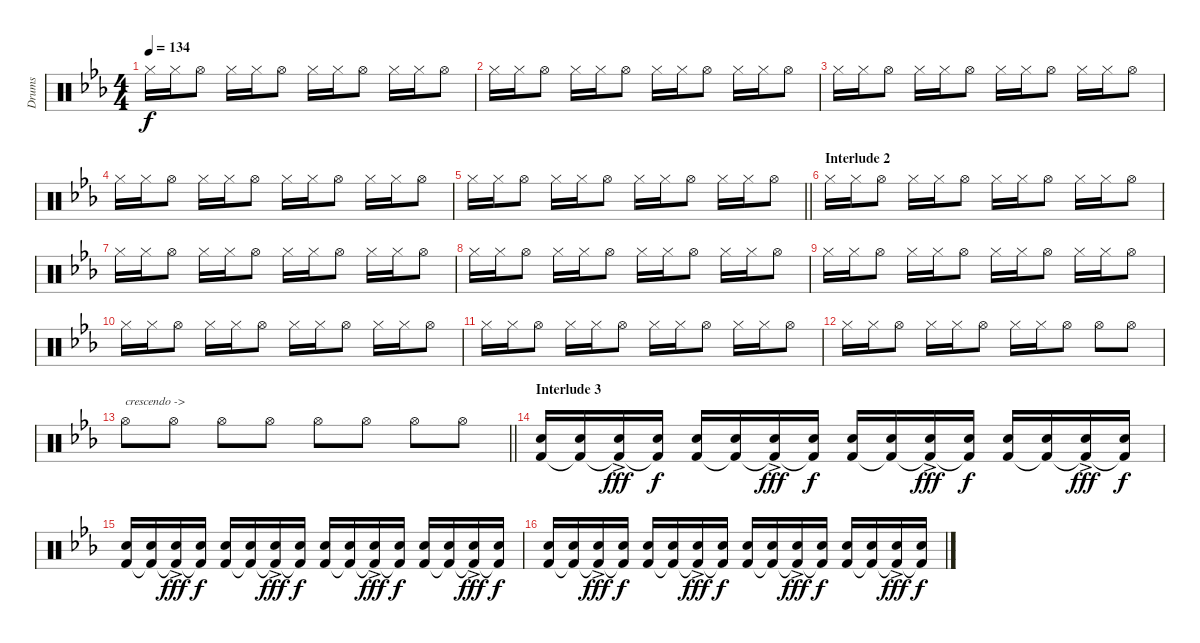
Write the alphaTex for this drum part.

\track ("Drums" "Drums") {instrument percussion}
\staff {score}
\articulation defaults
\ts (4 4)
\tempo 134
\clef neutral
\ks eb "Hi-Hat (closed)".16{dy f} "Hi-Hat (closed)".16 "Hi-Hat (open)".8 "Hi-Hat (closed)".16 "Hi-Hat (closed)".16 "Hi-Hat (open)".8 "Hi-Hat (closed)".16 "Hi-Hat (closed)".16 "Hi-Hat (open)".8 "Hi-Hat (closed)".16 "Hi-Hat (closed)".16 "Hi-Hat (open)".8
|
"Hi-Hat (closed)".16 "Hi-Hat (closed)".16 "Hi-Hat (open)".8 "Hi-Hat (closed)".16 "Hi-Hat (closed)".16 "Hi-Hat (open)".8 "Hi-Hat (closed)".16 "Hi-Hat (closed)".16 "Hi-Hat (open)".8 "Hi-Hat (closed)".16 "Hi-Hat (closed)".16 "Hi-Hat (open)".8 |
"Hi-Hat (closed)".16 "Hi-Hat (closed)".16 "Hi-Hat (open)".8 "Hi-Hat (closed)".16 "Hi-Hat (closed)".16 "Hi-Hat (open)".8 "Hi-Hat (closed)".16 "Hi-Hat (closed)".16 "Hi-Hat (open)".8 "Hi-Hat (closed)".16 "Hi-Hat (closed)".16 "Hi-Hat (open)".8 |
"Hi-Hat (closed)".16 "Hi-Hat (closed)".16 "Hi-Hat (open)".8 "Hi-Hat (closed)".16 "Hi-Hat (closed)".16 "Hi-Hat (open)".8 "Hi-Hat (closed)".16 "Hi-Hat (closed)".16 "Hi-Hat (open)".8 "Hi-Hat (closed)".16 "Hi-Hat (closed)".16 "Hi-Hat (open)".8 |
\barLineRight lightlight "Hi-Hat (closed)".16 "Hi-Hat (closed)".16 "Hi-Hat (open)".8 "Hi-Hat (closed)".16 "Hi-Hat (closed)".16 "Hi-Hat (open)".8 "Hi-Hat (closed)".16 "Hi-Hat (closed)".16 "Hi-Hat (open)".8 "Hi-Hat (closed)".16 "Hi-Hat (closed)".16 "Hi-Hat (open)".8
|
\section ("" "Interlude 2")
"Hi-Hat (closed)".16 "Hi-Hat (closed)".16 "Hi-Hat (open)".8 "Hi-Hat (closed)".16 "Hi-Hat (closed)".16 "Hi-Hat (open)".8 "Hi-Hat (closed)".16 "Hi-Hat (closed)".16 "Hi-Hat (open)".8 "Hi-Hat (closed)".16 "Hi-Hat (closed)".16 "Hi-Hat (open)".8 |
"Hi-Hat (closed)".16 "Hi-Hat (closed)".16 "Hi-Hat (open)".8 "Hi-Hat (closed)".16 "Hi-Hat (closed)".16 "Hi-Hat (open)".8 "Hi-Hat (closed)".16 "Hi-Hat (closed)".16 "Hi-Hat (open)".8 "Hi-Hat (closed)".16 "Hi-Hat (closed)".16 "Hi-Hat (open)".8 |
"Hi-Hat (closed)".16 "Hi-Hat (closed)".16 "Hi-Hat (open)".8 "Hi-Hat (closed)".16 "Hi-Hat (closed)".16 "Hi-Hat (open)".8 "Hi-Hat (closed)".16 "Hi-Hat (closed)".16 "Hi-Hat (open)".8 "Hi-Hat (closed)".16 "Hi-Hat (closed)".16 "Hi-Hat (open)".8 |
"Hi-Hat (closed)".16 "Hi-Hat (closed)".16 "Hi-Hat (open)".8 "Hi-Hat (closed)".16 "Hi-Hat (closed)".16 "Hi-Hat (open)".8 "Hi-Hat (closed)".16 "Hi-Hat (closed)".16 "Hi-Hat (open)".8 "Hi-Hat (closed)".16 "Hi-Hat (closed)".16 "Hi-Hat (open)".8 |
"Hi-Hat (closed)".16 "Hi-Hat (closed)".16 "Hi-Hat (open)".8 "Hi-Hat (closed)".16 "Hi-Hat (closed)".16 "Hi-Hat (open)".8 "Hi-Hat (closed)".16 "Hi-Hat (closed)".16 "Hi-Hat (open)".8 "Hi-Hat (closed)".16 "Hi-Hat (closed)".16 "Hi-Hat (open)".8 |
"Hi-Hat (closed)".16 "Hi-Hat (closed)".16 "Hi-Hat (open)".8 "Hi-Hat (closed)".16 "Hi-Hat (closed)".16 "Hi-Hat (open)".8 "Hi-Hat (closed)".16 "Hi-Hat (closed)".16 "Hi-Hat (open)".8 "Hi-Hat (closed)".16 "Hi-Hat (closed)".16 "Hi-Hat (open)".8 |
"Hi-Hat (closed)".16 "Hi-Hat (closed)".16 "Hi-Hat (open)".8 "Hi-Hat (closed)".16 "Hi-Hat (closed)".16 "Hi-Hat (open)".8 "Hi-Hat (closed)".16 "Hi-Hat (closed)".16 "Hi-Hat (open)".8 "Hi-Hat (open)".8 "Hi-Hat (open)".8 |
\barLineRight lightlight "Hi-Hat (open)".8{txt "crescendo ->"} "Hi-Hat (open)".8 "Hi-Hat (open)".8 "Hi-Hat (open)".8 "Hi-Hat (open)".8 "Hi-Hat (open)".8 "Hi-Hat (open)".8 "Hi-Hat (open)".8
|
\section ("" "Interlude 3")
("Electric Snare (hit)" "Kick (hit) 2").16 ("Electric Snare (hit)" "Kick (hit) 2"{t}).16 ("Electric Snare (hit)"{ac} "Kick (hit) 2"{t}).16{dy fff} ("Electric Snare (hit)" "Kick (hit) 2"{t}).16{dy f} ("Electric Snare (hit)" "Kick (hit) 2").16 ("Electric Snare (hit)" "Kick (hit) 2"{t}).16 ("Electric Snare (hit)"{ac} "Kick (hit) 2"{t}).16{dy fff} ("Electric Snare (hit)" "Kick (hit) 2"{t}).16{dy f} ("Electric Snare (hit)" "Kick (hit) 2").16 ("Electric Snare (hit)" "Kick (hit) 2"{t}).16 ("Electric Snare (hit)"{ac} "Kick (hit) 2"{t}).16{dy fff} ("Electric Snare (hit)" "Kick (hit) 2"{t}).16{dy f} ("Electric Snare (hit)" "Kick (hit) 2").16 ("Electric Snare (hit)" "Kick (hit) 2"{t}).16 ("Electric Snare (hit)"{ac} "Kick (hit) 2"{t}).16{dy fff} ("Electric Snare (hit)" "Kick (hit) 2"{t}).16{dy f} |
("Electric Snare (hit)" "Kick (hit) 2").16 ("Electric Snare (hit)" "Kick (hit) 2"{t}).16 ("Electric Snare (hit)"{ac} "Kick (hit) 2"{t}).16{dy fff} ("Electric Snare (hit)" "Kick (hit) 2"{t}).16{dy f} ("Electric Snare (hit)" "Kick (hit) 2").16 ("Electric Snare (hit)" "Kick (hit) 2"{t}).16 ("Electric Snare (hit)"{ac} "Kick (hit) 2"{t}).16{dy fff} ("Electric Snare (hit)" "Kick (hit) 2"{t}).16{dy f} ("Electric Snare (hit)" "Kick (hit) 2").16 ("Electric Snare (hit)" "Kick (hit) 2"{t}).16 ("Electric Snare (hit)"{ac} "Kick (hit) 2"{t}).16{dy fff} ("Electric Snare (hit)" "Kick (hit) 2"{t}).16{dy f} ("Electric Snare (hit)" "Kick (hit) 2").16 ("Electric Snare (hit)" "Kick (hit) 2"{t}).16 ("Electric Snare (hit)"{ac} "Kick (hit) 2"{t}).16{dy fff} ("Electric Snare (hit)" "Kick (hit) 2"{t}).16{dy f} |
("Electric Snare (hit)" "Kick (hit) 2").16 ("Electric Snare (hit)" "Kick (hit) 2"{t}).16 ("Electric Snare (hit)"{ac} "Kick (hit) 2"{t}).16{dy fff} ("Electric Snare (hit)" "Kick (hit) 2"{t}).16{dy f} ("Electric Snare (hit)" "Kick (hit) 2").16 ("Electric Snare (hit)" "Kick (hit) 2"{t}).16 ("Electric Snare (hit)"{ac} "Kick (hit) 2"{t}).16{dy fff} ("Electric Snare (hit)" "Kick (hit) 2"{t}).16{dy f} ("Electric Snare (hit)" "Kick (hit) 2").16 ("Electric Snare (hit)" "Kick (hit) 2"{t}).16 ("Electric Snare (hit)"{ac} "Kick (hit) 2"{t}).16{dy fff} ("Electric Snare (hit)" "Kick (hit) 2"{t}).16{dy f} ("Electric Snare (hit)" "Kick (hit) 2").16 ("Electric Snare (hit)" "Kick (hit) 2"{t}).16 ("Electric Snare (hit)"{ac} "Kick (hit) 2"{t}).16{dy fff} ("Electric Snare (hit)" "Kick (hit) 2"{t}).16{dy f}
